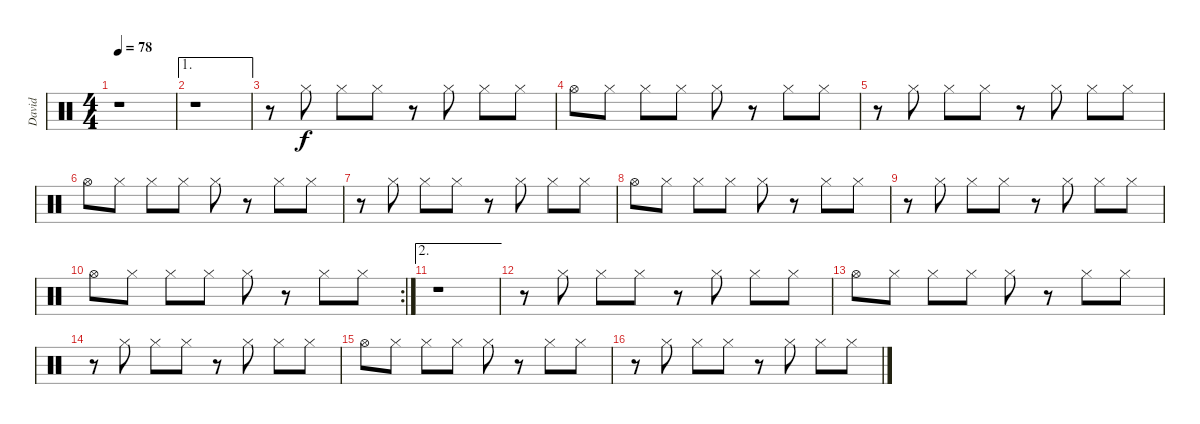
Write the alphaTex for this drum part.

\track ("David" "David") {instrument percussion}
\staff {score}
\articulation defaults
\ts (4 4)
\tempo 78
\clef neutral
\ks c
r.1{dy f} |
\ae 1
r.1 |
r.8 "Hi-Hat (closed)".8 "Hi-Hat (closed)".8 "Hi-Hat (closed)".8 r.8 "Hi-Hat (closed)".8 "Hi-Hat (closed)".8 "Hi-Hat (closed)".8 |
"Hi-Hat (open)".8 "Hi-Hat (closed)".8 "Hi-Hat (closed)".8 "Hi-Hat (closed)".8 "Hi-Hat (closed)".8 r.8 "Hi-Hat (closed)".8 "Hi-Hat (closed)".8 |
r.8 "Hi-Hat (closed)".8 "Hi-Hat (closed)".8 "Hi-Hat (closed)".8 r.8 "Hi-Hat (closed)".8 "Hi-Hat (closed)".8 "Hi-Hat (closed)".8 |
"Hi-Hat (open)".8 "Hi-Hat (closed)".8 "Hi-Hat (closed)".8 "Hi-Hat (closed)".8 "Hi-Hat (closed)".8 r.8 "Hi-Hat (closed)".8 "Hi-Hat (closed)".8 |
r.8 "Hi-Hat (closed)".8 "Hi-Hat (closed)".8 "Hi-Hat (closed)".8 r.8 "Hi-Hat (closed)".8 "Hi-Hat (closed)".8 "Hi-Hat (closed)".8 |
"Hi-Hat (open)".8 "Hi-Hat (closed)".8 "Hi-Hat (closed)".8 "Hi-Hat (closed)".8 "Hi-Hat (closed)".8 r.8 "Hi-Hat (closed)".8 "Hi-Hat (closed)".8 |
r.8 "Hi-Hat (closed)".8 "Hi-Hat (closed)".8 "Hi-Hat (closed)".8 r.8 "Hi-Hat (closed)".8 "Hi-Hat (closed)".8 "Hi-Hat (closed)".8 |
\rc 2 "Hi-Hat (open)".8 "Hi-Hat (closed)".8 "Hi-Hat (closed)".8 "Hi-Hat (closed)".8 "Hi-Hat (closed)".8
r.8 "Hi-Hat (closed)".8 "Hi-Hat (closed)".8 |
\ae 2
r.1 |
r.8 "Hi-Hat (closed)".8 "Hi-Hat (closed)".8 "Hi-Hat (closed)".8 r.8 "Hi-Hat (closed)".8 "Hi-Hat (closed)".8 "Hi-Hat (closed)".8 |
"Hi-Hat (open)".8 "Hi-Hat (closed)".8 "Hi-Hat (closed)".8 "Hi-Hat (closed)".8 "Hi-Hat (closed)".8 r.8 "Hi-Hat (closed)".8 "Hi-Hat (closed)".8 |
r.8 "Hi-Hat (closed)".8 "Hi-Hat (closed)".8 "Hi-Hat (closed)".8 r.8 "Hi-Hat (closed)".8 "Hi-Hat (closed)".8 "Hi-Hat (closed)".8 |
"Hi-Hat (open)".8 "Hi-Hat (closed)".8 "Hi-Hat (closed)".8 "Hi-Hat (closed)".8 "Hi-Hat (closed)".8 r.8 "Hi-Hat (closed)".8 "Hi-Hat (closed)".8 |
r.8 "Hi-Hat (closed)".8 "Hi-Hat (closed)".8 "Hi-Hat (closed)".8 r.8 "Hi-Hat (closed)".8 "Hi-Hat (closed)".8 "Hi-Hat (closed)".8
